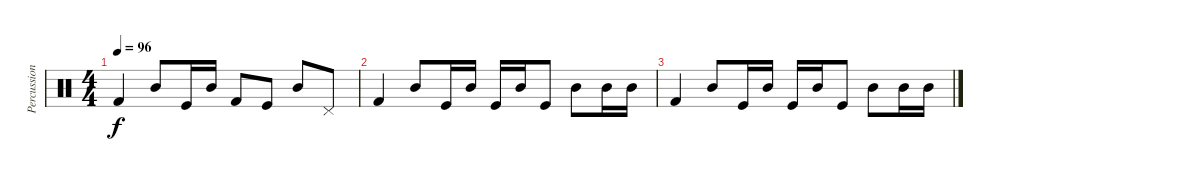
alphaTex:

\track ("Percussions" "Percussion") {instrument percussion}
\staff {score}
\articulation defaults
\ts (4 4)
\tempo 96
\clef neutral
\ks c "Kick (hit) 2".4{dy f} "Mid Tom (hit)".8 "Kick (hit)".16 "Mid Tom (hit)".16 "Kick (hit) 2".8 "Kick (hit)".8 "Mid Tom (hit)".8 "Pedal Hi-Hat (hit)".8
|
"Kick (hit) 2".4 "Mid Tom (hit)".8 "Kick (hit)".16 "Mid Tom (hit)".16 "Kick (hit)".16 "Mid Tom (hit)".16 "Kick (hit)".8 "Mid Tom (hit)".8 "Mid Tom (hit)".16 "Mid Tom (hit)".16 |
"Kick (hit) 2".4 "Mid Tom (hit)".8 "Kick (hit)".16 "Mid Tom (hit)".16 "Kick (hit)".16 "Mid Tom (hit)".16 "Kick (hit)".8 "Mid Tom (hit)".8 "Mid Tom (hit)".16 "Mid Tom (hit)".16
